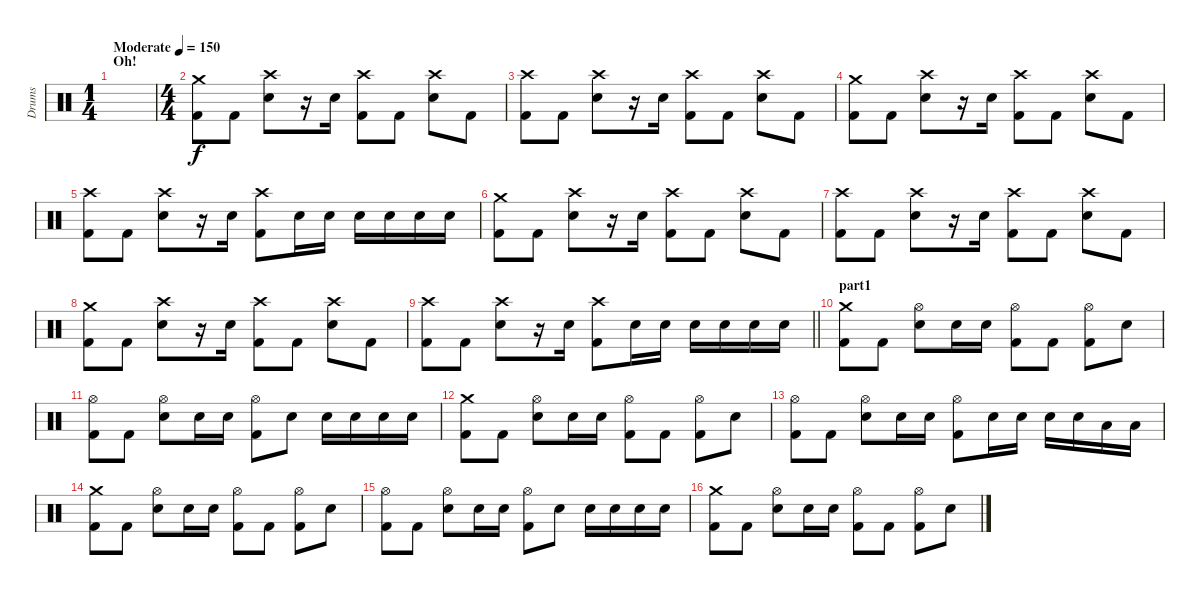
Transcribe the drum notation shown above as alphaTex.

\track ("Drums" "Drums") {instrument percussion}
\staff {score}
\articulation defaults
\ts (1 4)
\section ("" "Oh!")
\tempo (150 "Moderate")
\clef neutral
\ks c
|
\ts (4 4)
("Kick (hit) 2" "Crash medium (hit)").8 "Kick (hit) 2".8 ("Electric Snare (hit)" "Crash high (hit)").8 r.16 "Electric Snare (hit)".16 ("Kick (hit) 2" "Crash high (hit)").8 "Kick (hit) 2".8 ("Electric Snare (hit)" "Crash high (hit)").8 "Kick (hit) 2".8 |
("Kick (hit) 2" "Crash high (hit)").8 "Kick (hit) 2".8 ("Electric Snare (hit)" "Crash high (hit)").8 r.16 "Electric Snare (hit)".16 ("Kick (hit) 2" "Crash high (hit)").8 "Kick (hit) 2".8 ("Electric Snare (hit)" "Crash high (hit)").8 "Kick (hit) 2".8 |
("Kick (hit) 2" "Crash medium (hit)").8 "Kick (hit) 2".8 ("Electric Snare (hit)" "Crash high (hit)").8 r.16 "Electric Snare (hit)".16 ("Kick (hit) 2" "Crash high (hit)").8 "Kick (hit) 2".8 ("Electric Snare (hit)" "Crash high (hit)").8 "Kick (hit) 2".8 |
("Kick (hit) 2" "Crash high (hit)").8 "Kick (hit) 2".8 ("Electric Snare (hit)" "Crash high (hit)").8 r.16 "Electric Snare (hit)".16 ("Kick (hit) 2" "Crash high (hit)").8 "Electric Snare (hit)".16 "Electric Snare (hit)".16 "Electric Snare (hit)".16 "Electric Snare (hit)".16 "Electric Snare (hit)".16 "Electric Snare (hit)".16 |
("Kick (hit) 2" "Crash medium (hit)").8 "Kick (hit) 2".8 ("Electric Snare (hit)" "Crash high (hit)").8 r.16 "Electric Snare (hit)".16 ("Kick (hit) 2" "Crash high (hit)").8 "Kick (hit) 2".8 ("Electric Snare (hit)" "Crash high (hit)").8 "Kick (hit) 2".8 |
("Kick (hit) 2" "Crash high (hit)").8 "Kick (hit) 2".8 ("Electric Snare (hit)" "Crash high (hit)").8 r.16 "Electric Snare (hit)".16 ("Kick (hit) 2" "Crash high (hit)").8 "Kick (hit) 2".8 ("Electric Snare (hit)" "Crash high (hit)").8 "Kick (hit) 2".8 |
("Kick (hit) 2" "Crash medium (hit)").8 "Kick (hit) 2".8 ("Electric Snare (hit)" "Crash high (hit)").8 r.16 "Electric Snare (hit)".16 ("Kick (hit) 2" "Crash high (hit)").8 "Kick (hit) 2".8 ("Electric Snare (hit)" "Crash high (hit)").8 "Kick (hit) 2".8 |
\barLineRight lightlight
("Kick (hit) 2" "Crash high (hit)").8 "Kick (hit) 2".8 ("Electric Snare (hit)" "Crash high (hit)").8 r.16 "Electric Snare (hit)".16 ("Kick (hit) 2" "Crash high (hit)").8 "Electric Snare (hit)".16 "Electric Snare (hit)".16 "Electric Snare (hit)".16 "Electric Snare (hit)".16 "Electric Snare (hit)".16 "Electric Snare (hit)".16 |
\section ("" "part1")
("Kick (hit) 2" "Crash medium (hit)").8 "Kick (hit) 2".8 ("Electric Snare (hit)" "Hi-Hat (open)").8 "Electric Snare (hit)".16 "Electric Snare (hit)".16 ("Kick (hit) 2" "Hi-Hat (open)").8 "Kick (hit) 2".8 ("Kick (hit) 2" "Hi-Hat (open)").8 "Electric Snare (hit)".8 |
("Kick (hit) 2" "Hi-Hat (open)").8 "Kick (hit) 2".8 ("Electric Snare (hit)" "Hi-Hat (open)").8 "Electric Snare (hit)".16 "Electric Snare (hit)".16 ("Kick (hit) 2" "Hi-Hat (open)").8 "Electric Snare (hit)".8 "Electric Snare (hit)".16 "Electric Snare (hit)".16 "Electric Snare (hit)".16 "Electric Snare (hit)".16 |
("Kick (hit) 2" "Crash medium (hit)").8 "Kick (hit) 2".8 ("Electric Snare (hit)" "Hi-Hat (open)").8 "Electric Snare (hit)".16 "Electric Snare (hit)".16 ("Kick (hit) 2" "Hi-Hat (open)").8 "Kick (hit) 2".8 ("Kick (hit) 2" "Hi-Hat (open)").8 "Electric Snare (hit)".8 |
("Kick (hit) 2" "Hi-Hat (open)").8 "Kick (hit) 2".8 ("Electric Snare (hit)" "Hi-Hat (open)").8 "Electric Snare (hit)".16 "Electric Snare (hit)".16 ("Kick (hit) 2" "Hi-Hat (open)").8 "Electric Snare (hit)".16 "Electric Snare (hit)".16 "Electric Snare (hit)".16 "Electric Snare (hit)".16 "Low Tom (hit)".16 "Low Tom (hit)".16 |
("Kick (hit) 2" "Crash medium (hit)").8 "Kick (hit) 2".8 ("Electric Snare (hit)" "Hi-Hat (open)").8 "Electric Snare (hit)".16 "Electric Snare (hit)".16 ("Kick (hit) 2" "Hi-Hat (open)").8 "Kick (hit) 2".8 ("Kick (hit) 2" "Hi-Hat (open)").8 "Electric Snare (hit)".8 |
("Kick (hit) 2" "Hi-Hat (open)").8 "Kick (hit) 2".8 ("Electric Snare (hit)" "Hi-Hat (open)").8 "Electric Snare (hit)".16 "Electric Snare (hit)".16 ("Kick (hit) 2" "Hi-Hat (open)").8 "Electric Snare (hit)".8 "Electric Snare (hit)".16 "Electric Snare (hit)".16 "Electric Snare (hit)".16 "Electric Snare (hit)".16 |
("Kick (hit) 2" "Crash medium (hit)").8 "Kick (hit) 2".8 ("Electric Snare (hit)" "Hi-Hat (open)").8 "Electric Snare (hit)".16 "Electric Snare (hit)".16 ("Kick (hit) 2" "Hi-Hat (open)").8 "Kick (hit) 2".8 ("Kick (hit) 2" "Hi-Hat (open)").8 "Electric Snare (hit)".8
